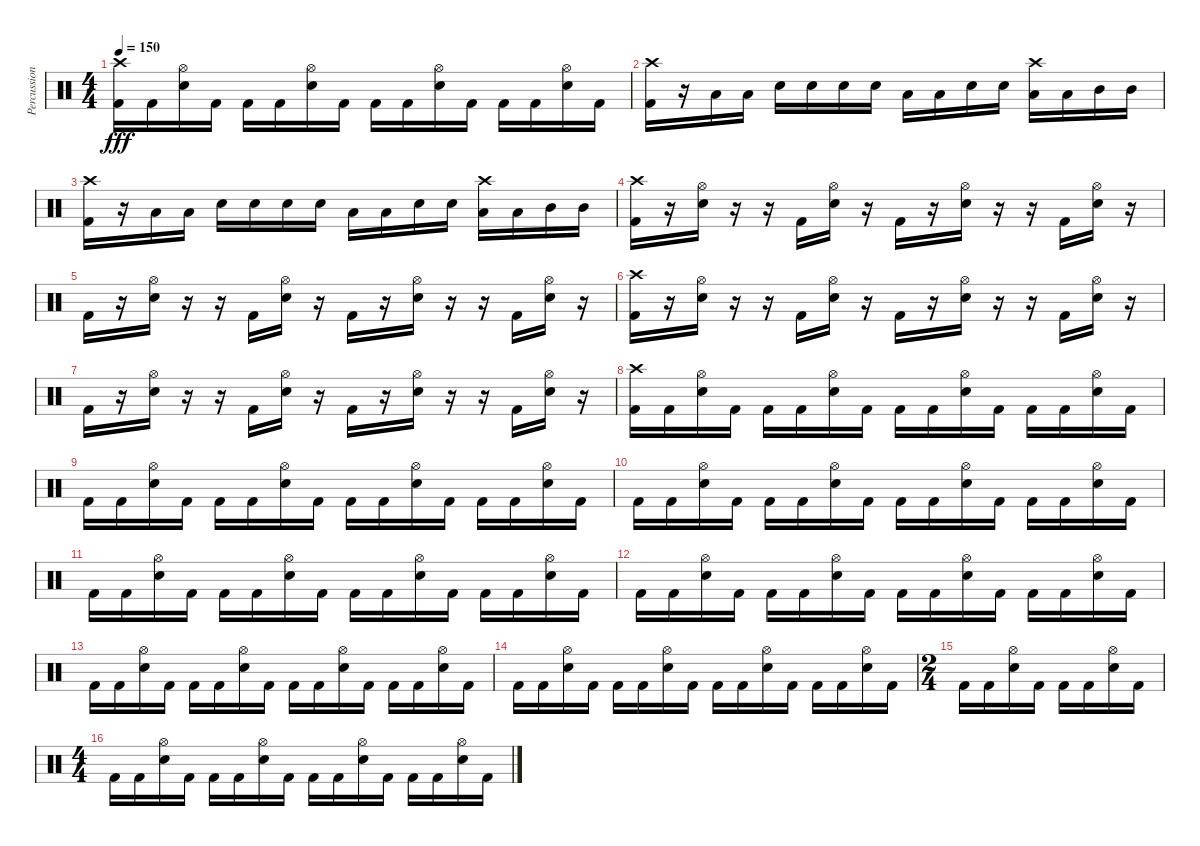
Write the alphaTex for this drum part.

\track ("Percussion" "Percussion") {instrument percussion}
\staff {score}
\articulation defaults
\ts (4 4)
\tempo 150
\clef neutral
\ks c
("Kick (hit) 2" "Crash high (hit)").16{dy fff} "Kick (hit) 2".16 ("Snare (hit) 2" "Hi-Hat (open)").16 "Kick (hit) 2".16 "Kick (hit) 2".16 "Kick (hit) 2".16 ("Snare (hit) 2" "Hi-Hat (open)").16 "Kick (hit) 2".16 "Kick (hit) 2".16 "Kick (hit) 2".16 ("Snare (hit) 2" "Hi-Hat (open)").16 "Kick (hit) 2".16 "Kick (hit) 2".16 "Kick (hit) 2".16 ("Snare (hit) 2" "Hi-Hat (open)").16 "Kick (hit) 2".16 |
("Kick (hit) 2" "Crash high (hit)").16 r.16 "Low Tom (hit)".16 "Low Tom (hit)".16 "Snare (hit) 2".16 "Snare (hit) 2".16 "Snare (hit) 2".16 "Snare (hit) 2".16 "Low Tom (hit)".16 "Low Tom (hit)".16 "Snare (hit) 2".16 "Snare (hit) 2".16 ("Low Tom (hit)" "Crash high (hit)").16 "Low Tom (hit)".16 "Mid Tom (hit)".16 "Mid Tom (hit)".16 |
("Kick (hit) 2" "Crash high (hit)").16 r.16 "Low Tom (hit)".16 "Low Tom (hit)".16 "Snare (hit) 2".16 "Snare (hit) 2".16 "Snare (hit) 2".16 "Snare (hit) 2".16 "Low Tom (hit)".16 "Low Tom (hit)".16 "Snare (hit) 2".16 "Snare (hit) 2".16 ("Low Tom (hit)" "Crash high (hit)").16 "Low Tom (hit)".16 "Mid Tom (hit)".16 "Mid Tom (hit)".16 |
("Kick (hit) 2" "Crash high (hit)").16 r.16 ("Snare (hit) 2" "Hi-Hat (open)").16 r.16 r.16 "Kick (hit) 2".16 ("Snare (hit) 2" "Hi-Hat (open)").16 r.16 "Kick (hit) 2".16 r.16 ("Snare (hit) 2" "Hi-Hat (open)").16 r.16 r.16 "Kick (hit) 2".16 ("Snare (hit) 2" "Hi-Hat (open)").16 r.16 |
"Kick (hit) 2".16 r.16 ("Snare (hit) 2" "Hi-Hat (open)").16 r.16 r.16 "Kick (hit) 2".16 ("Snare (hit) 2" "Hi-Hat (open)").16 r.16 "Kick (hit) 2".16 r.16 ("Snare (hit) 2" "Hi-Hat (open)").16 r.16 r.16 "Kick (hit) 2".16 ("Snare (hit) 2" "Hi-Hat (open)").16 r.16 |
("Kick (hit) 2" "Crash high (hit)").16 r.16 ("Snare (hit) 2" "Hi-Hat (open)").16 r.16 r.16 "Kick (hit) 2".16 ("Snare (hit) 2" "Hi-Hat (open)").16 r.16 "Kick (hit) 2".16 r.16 ("Snare (hit) 2" "Hi-Hat (open)").16 r.16 r.16 "Kick (hit) 2".16 ("Snare (hit) 2" "Hi-Hat (open)").16 r.16 |
"Kick (hit) 2".16 r.16 ("Snare (hit) 2" "Hi-Hat (open)").16 r.16 r.16 "Kick (hit) 2".16 ("Snare (hit) 2" "Hi-Hat (open)").16 r.16 "Kick (hit) 2".16 r.16 ("Snare (hit) 2" "Hi-Hat (open)").16 r.16 r.16 "Kick (hit) 2".16 ("Snare (hit) 2" "Hi-Hat (open)").16 r.16 |
("Kick (hit) 2" "Crash high (hit)").16 "Kick (hit) 2".16 ("Snare (hit) 2" "Hi-Hat (open)").16 "Kick (hit) 2".16 "Kick (hit) 2".16 "Kick (hit) 2".16 ("Snare (hit) 2" "Hi-Hat (open)").16 "Kick (hit) 2".16 "Kick (hit) 2".16 "Kick (hit) 2".16 ("Snare (hit) 2" "Hi-Hat (open)").16 "Kick (hit) 2".16 "Kick (hit) 2".16 "Kick (hit) 2".16 ("Snare (hit) 2" "Hi-Hat (open)").16 "Kick (hit) 2".16 |
"Kick (hit) 2".16 "Kick (hit) 2".16 ("Snare (hit) 2" "Hi-Hat (open)").16 "Kick (hit) 2".16 "Kick (hit) 2".16 "Kick (hit) 2".16 ("Snare (hit) 2" "Hi-Hat (open)").16 "Kick (hit) 2".16 "Kick (hit) 2".16 "Kick (hit) 2".16 ("Snare (hit) 2" "Hi-Hat (open)").16 "Kick (hit) 2".16 "Kick (hit) 2".16 "Kick (hit) 2".16 ("Snare (hit) 2" "Hi-Hat (open)").16 "Kick (hit) 2".16 |
"Kick (hit) 2".16 "Kick (hit) 2".16 ("Snare (hit) 2" "Hi-Hat (open)").16 "Kick (hit) 2".16 "Kick (hit) 2".16 "Kick (hit) 2".16 ("Snare (hit) 2" "Hi-Hat (open)").16 "Kick (hit) 2".16 "Kick (hit) 2".16 "Kick (hit) 2".16 ("Snare (hit) 2" "Hi-Hat (open)").16 "Kick (hit) 2".16 "Kick (hit) 2".16 "Kick (hit) 2".16 ("Snare (hit) 2" "Hi-Hat (open)").16 "Kick (hit) 2".16 |
"Kick (hit) 2".16 "Kick (hit) 2".16 ("Snare (hit) 2" "Hi-Hat (open)").16 "Kick (hit) 2".16 "Kick (hit) 2".16 "Kick (hit) 2".16 ("Snare (hit) 2" "Hi-Hat (open)").16 "Kick (hit) 2".16 "Kick (hit) 2".16 "Kick (hit) 2".16 ("Snare (hit) 2" "Hi-Hat (open)").16 "Kick (hit) 2".16 "Kick (hit) 2".16 "Kick (hit) 2".16 ("Snare (hit) 2" "Hi-Hat (open)").16 "Kick (hit) 2".16 |
"Kick (hit) 2".16 "Kick (hit) 2".16 ("Snare (hit) 2" "Hi-Hat (open)").16 "Kick (hit) 2".16 "Kick (hit) 2".16 "Kick (hit) 2".16 ("Snare (hit) 2" "Hi-Hat (open)").16 "Kick (hit) 2".16 "Kick (hit) 2".16 "Kick (hit) 2".16 ("Snare (hit) 2" "Hi-Hat (open)").16 "Kick (hit) 2".16 "Kick (hit) 2".16 "Kick (hit) 2".16 ("Snare (hit) 2" "Hi-Hat (open)").16 "Kick (hit) 2".16 |
"Kick (hit) 2".16 "Kick (hit) 2".16 ("Snare (hit) 2" "Hi-Hat (open)").16 "Kick (hit) 2".16 "Kick (hit) 2".16 "Kick (hit) 2".16 ("Snare (hit) 2" "Hi-Hat (open)").16 "Kick (hit) 2".16 "Kick (hit) 2".16 "Kick (hit) 2".16 ("Snare (hit) 2" "Hi-Hat (open)").16 "Kick (hit) 2".16 "Kick (hit) 2".16 "Kick (hit) 2".16 ("Snare (hit) 2" "Hi-Hat (open)").16 "Kick (hit) 2".16 |
"Kick (hit) 2".16 "Kick (hit) 2".16 ("Snare (hit) 2" "Hi-Hat (open)").16 "Kick (hit) 2".16 "Kick (hit) 2".16 "Kick (hit) 2".16 ("Snare (hit) 2" "Hi-Hat (open)").16 "Kick (hit) 2".16 "Kick (hit) 2".16 "Kick (hit) 2".16 ("Snare (hit) 2" "Hi-Hat (open)").16 "Kick (hit) 2".16 "Kick (hit) 2".16 "Kick (hit) 2".16 ("Snare (hit) 2" "Hi-Hat (open)").16 "Kick (hit) 2".16 |
\ts (2 4)
"Kick (hit) 2".16 "Kick (hit) 2".16 ("Snare (hit) 2" "Hi-Hat (open)").16 "Kick (hit) 2".16 "Kick (hit) 2".16 "Kick (hit) 2".16 ("Snare (hit) 2" "Hi-Hat (open)").16 "Kick (hit) 2".16 |
\ts (4 4)
"Kick (hit) 2".16 "Kick (hit) 2".16 ("Snare (hit) 2" "Hi-Hat (open)").16 "Kick (hit) 2".16 "Kick (hit) 2".16 "Kick (hit) 2".16 ("Snare (hit) 2" "Hi-Hat (open)").16 "Kick (hit) 2".16 "Kick (hit) 2".16 "Kick (hit) 2".16 ("Snare (hit) 2" "Hi-Hat (open)").16 "Kick (hit) 2".16 "Kick (hit) 2".16 "Kick (hit) 2".16 ("Snare (hit) 2" "Hi-Hat (open)").16 "Kick (hit) 2".16
